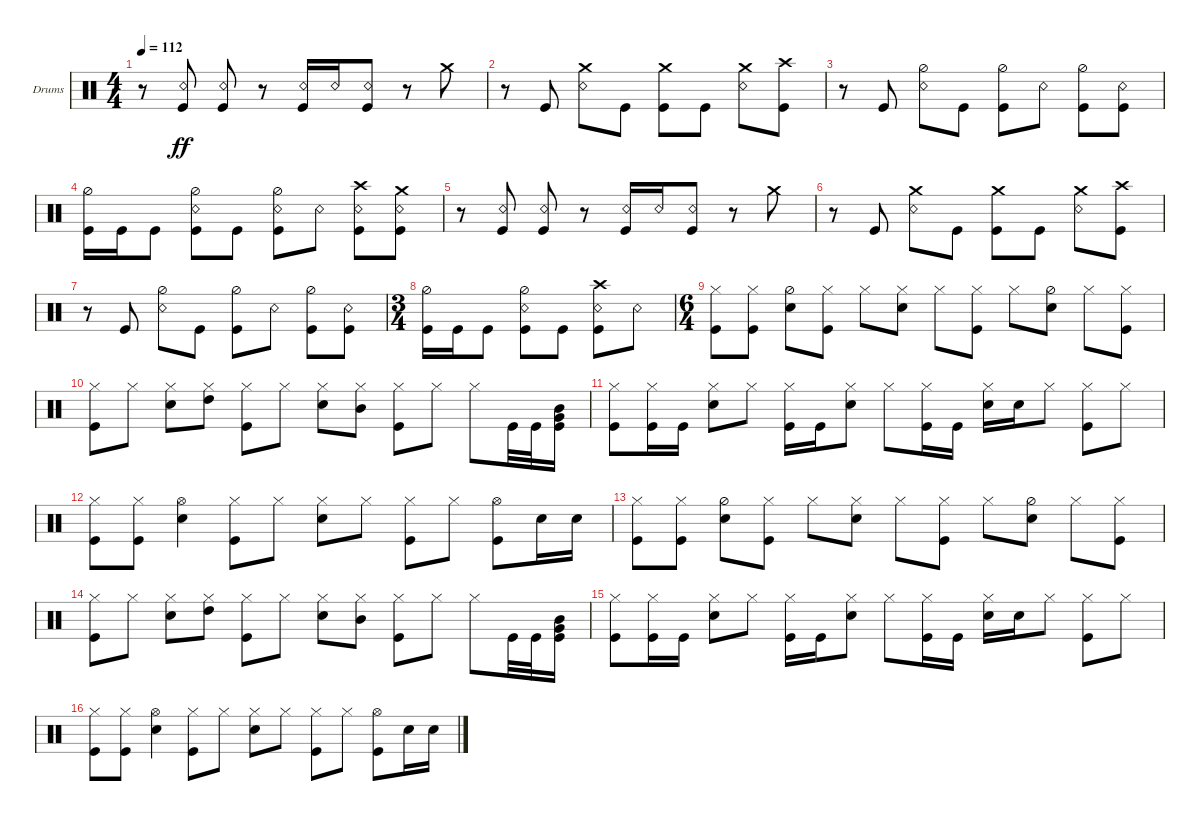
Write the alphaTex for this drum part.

\defaultSystemsLayout 4
\bracketExtendMode groupsimilarinstruments
\firstSystemTrackNameOrientation horizontal
\otherSystemsTrackNameOrientation horizontal
\track ("Kaleb - Drums" "Drums") {instrument percussion}
\staff {score}
\articulation defaults
\ts (4 4)
\tempo 112
\clef neutral
\scale
0.333333
\ks c
r.8{dy ff} ("Snare (rim shot)" "Kick (hit)").8 ("Snare (rim shot)" "Kick (hit)").8 r.8 ("Snare (rim shot)" "Kick (hit)").16 "Snare (rim shot)".16 ("Snare (rim shot)" "Kick (hit)").8 r.8 "Crash medium (hit)".8 |
\scale
0.333333 r.8 "Kick (hit)".8 ("Snare (rim shot)" "Crash medium (hit)").8 "Kick (hit)".8 ("Kick (hit)" "Crash medium (hit)").8 "Kick (hit)".8 ("Snare (rim shot)" "Crash medium (hit)").8 ("Kick (hit)" "Crash high (hit)").8 |
r.8 "Kick (hit)".8 ("Snare (rim shot)" "Hi-Hat (half)").8 "Kick (hit)".8 ("Kick (hit)" "Hi-Hat (half)").8 "Snare (rim shot)".8 ("Kick (hit)" "Hi-Hat (half)").8 ("Snare (rim shot)" "Kick (hit)").8 |
("Kick (hit)" "Hi-Hat (half)").16 "Kick (hit)".16 "Kick (hit)".8 ("Kick (hit)" "Hi-Hat (half)" "Snare (rim shot)").8 "Kick (hit)".8 ("Kick (hit)" "Hi-Hat (half)" "Snare (rim shot)").8 "Snare (rim shot)".8 ("Kick (hit)" "Snare (rim shot)" "Crash high (hit)").8 ("Kick (hit)" "Snare (rim shot)" "Crash medium (hit)").8 |
r.8 ("Snare (rim shot)" "Kick (hit)").8 ("Snare (rim shot)" "Kick (hit)").8 r.8 ("Snare (rim shot)" "Kick (hit)").16 "Snare (rim shot)".16 ("Snare (rim shot)" "Kick (hit)").8 r.8 "Crash medium (hit)".8 |
r.8 "Kick (hit)".8 ("Snare (rim shot)" "Crash medium (hit)").8 "Kick (hit)".8 ("Kick (hit)" "Crash medium (hit)").8 "Kick (hit)".8 ("Snare (rim shot)" "Crash medium (hit)").8 ("Kick (hit)" "Crash high (hit)").8 |
r.8 "Kick (hit)".8 ("Snare (rim shot)" "Hi-Hat (half)").8 "Kick (hit)".8 ("Kick (hit)" "Hi-Hat (half)").8 "Snare (rim shot)".8 ("Kick (hit)" "Hi-Hat (half)").8 ("Snare (rim shot)" "Kick (hit)").8 |
\ts (3 4)
("Kick (hit)" "Hi-Hat (half)").16 "Kick (hit)".16 "Kick (hit)".8 ("Kick (hit)" "Hi-Hat (half)" "Snare (rim shot)").8 "Kick (hit)".8 ("Kick (hit)" "Snare (rim shot)" "Crash high (hit)").8 "Snare (rim shot)".8 |
\ts (6 4)
("Hi-Hat (closed)" "Kick (hit)").8 ("Hi-Hat (closed)" "Kick (hit)").8 ("Hi-Hat (half)" "Snare (hit) 2").8 ("Hi-Hat (closed)" "Kick (hit)").8 "Hi-Hat (closed)".8 ("Hi-Hat (closed)" "Snare (hit) 2").8 "Hi-Hat (closed)".8 ("Hi-Hat (closed)" "Kick (hit)").8 "Hi-Hat (closed)".8 ("Hi-Hat (half)" "Snare (hit) 2").8 "Hi-Hat (closed)".8 ("Hi-Hat (closed)" "Kick (hit)").8 |
("Kick (hit)" "Hi-Hat (closed)").8 "Hi-Hat (closed)".8 ("Hi-Hat (closed)" "Snare (hit) 2").8 ("Hi-Hat (closed)" "High Tom (hit)").8 ("Hi-Hat (closed)" "Kick (hit)").8 "Hi-Hat (closed)".8 ("Hi-Hat (closed)" "Snare (hit) 2").8 ("Hi-Hat (closed)" "Mid Tom (hit)").8 ("Hi-Hat (closed)" "Kick (hit)").8 "Hi-Hat (closed)".8 "Hi-Hat (closed)".8 "Kick (hit)".32 "Kick (hit)".32 ("Mid Tom (hit)" "Very Low Tom (hit)" "Kick (hit)").16 |
("Kick (hit)" "Hi-Hat (closed)").8 ("Kick (hit)" "Hi-Hat (closed)").16 "Kick (hit)".16 ("Snare (hit) 2" "Hi-Hat (closed)").8 "Hi-Hat (closed)".8 ("Hi-Hat (closed)" "Kick (hit)").16 "Kick (hit)".16 ("Hi-Hat (closed)" "Snare (hit) 2").8 "Hi-Hat (closed)".8 ("Hi-Hat (closed)" "Kick (hit)").16 "Kick (hit)".16 ("Hi-Hat (closed)" "Snare (hit) 2").16 "Snare (hit) 2".16 "Hi-Hat (closed)".8 ("Hi-Hat (closed)" "Kick (hit)").8 "Hi-Hat (closed)".8 |
("Hi-Hat (closed)" "Kick (hit)").8 ("Hi-Hat (closed)" "Kick (hit)").8 ("Hi-Hat (open)" "Snare (hit) 2").4 ("Hi-Hat (closed)" "Kick (hit)").8 "Hi-Hat (closed)".8 ("Hi-Hat (closed)" "Snare (hit) 2").8 "Hi-Hat (closed)".8 ("Hi-Hat (closed)" "Kick (hit)").8 "Hi-Hat (closed)".8 ("Kick (hit)" "Hi-Hat (open)").8 "Snare (hit) 2".16 "Snare (hit) 2".16 |
("Hi-Hat (closed)" "Kick (hit)").8 ("Hi-Hat (closed)" "Kick (hit)").8 ("Hi-Hat (half)" "Snare (hit) 2").8 ("Hi-Hat (closed)" "Kick (hit)").8 "Hi-Hat (closed)".8 ("Hi-Hat (closed)" "Snare (hit) 2").8 "Hi-Hat (closed)".8 ("Hi-Hat (closed)" "Kick (hit)").8 "Hi-Hat (closed)".8 ("Hi-Hat (half)" "Snare (hit) 2").8 "Hi-Hat (closed)".8 ("Hi-Hat (closed)" "Kick (hit)").8 |
("Kick (hit)" "Hi-Hat (closed)").8 "Hi-Hat (closed)".8 ("Hi-Hat (closed)" "Snare (hit) 2").8 ("Hi-Hat (closed)" "High Tom (hit)").8 ("Hi-Hat (closed)" "Kick (hit)").8 "Hi-Hat (closed)".8 ("Hi-Hat (closed)" "Snare (hit) 2").8 ("Hi-Hat (closed)" "Mid Tom (hit)").8 ("Hi-Hat (closed)" "Kick (hit)").8 "Hi-Hat (closed)".8 "Hi-Hat (closed)".8 "Kick (hit)".32 "Kick (hit)".32 ("Mid Tom (hit)" "Very Low Tom (hit)" "Kick (hit)").16 |
("Kick (hit)" "Hi-Hat (closed)").8 ("Kick (hit)" "Hi-Hat (closed)").16 "Kick (hit)".16 ("Snare (hit) 2" "Hi-Hat (closed)").8 "Hi-Hat (closed)".8 ("Hi-Hat (closed)" "Kick (hit)").16 "Kick (hit)".16 ("Hi-Hat (closed)" "Snare (hit) 2").8 "Hi-Hat (closed)".8 ("Hi-Hat (closed)" "Kick (hit)").16 "Kick (hit)".16 ("Hi-Hat (closed)" "Snare (hit) 2").16 "Snare (hit) 2".16 "Hi-Hat (closed)".8 ("Hi-Hat (closed)" "Kick (hit)").8 "Hi-Hat (closed)".8 |
("Hi-Hat (closed)" "Kick (hit)").8 ("Hi-Hat (closed)" "Kick (hit)").8 ("Hi-Hat (open)" "Snare (hit) 2").4 ("Hi-Hat (closed)" "Kick (hit)").8 "Hi-Hat (closed)".8 ("Hi-Hat (closed)" "Snare (hit) 2").8 "Hi-Hat (closed)".8 ("Hi-Hat (closed)" "Kick (hit)").8 "Hi-Hat (closed)".8 ("Kick (hit)" "Hi-Hat (open)").8 "Snare (hit) 2".16 "Snare (hit) 2".16
